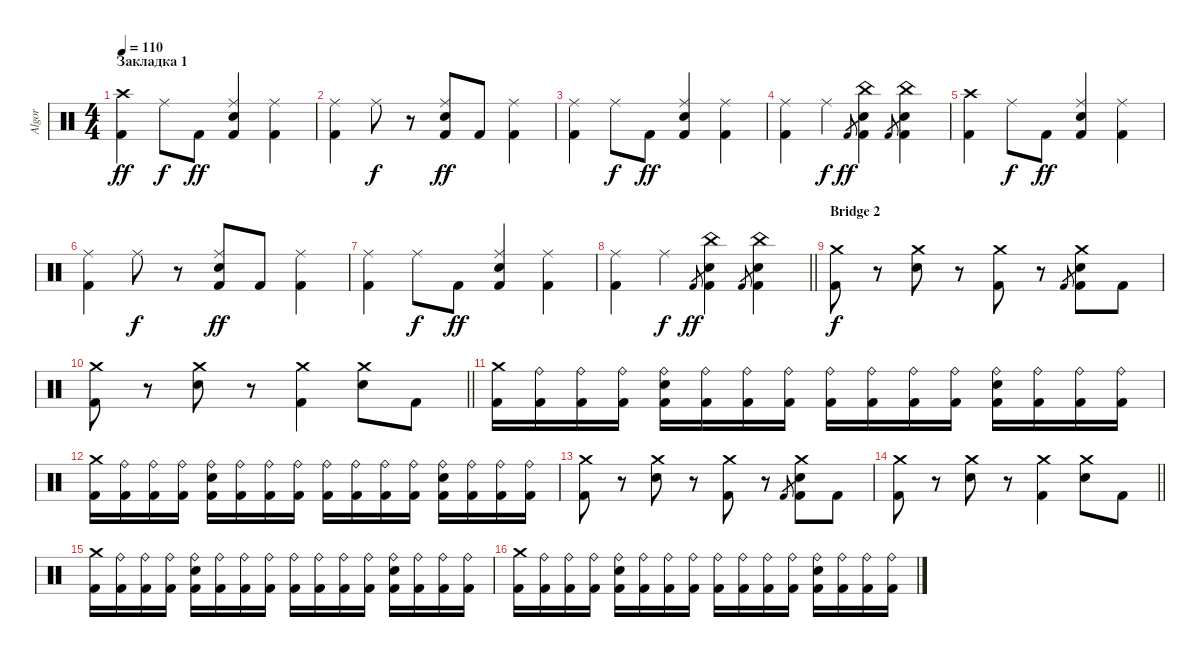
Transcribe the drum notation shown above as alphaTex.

\track ("Algor" "Algor") {instrument percussion}
\staff {score}
\articulation defaults
\ts (4 4)
\section ("" "Закладка 1")
\tempo 110
\clef neutral
\ks c
("Crash high (hit)" "Kick (hit) 2").4{dy ff} "Ride (middle)".8{dy f} "Kick (hit) 2".8{dy ff} ("Ride (middle)" "Snare (hit) 2" "Kick (hit) 2").4 ("Ride (middle)" "Kick (hit) 2").4 |
("Ride (middle)" "Kick (hit) 2").4 "Ride (middle)".8{dy f} r.8 ("Ride (middle)" "Snare (hit) 2" "Kick (hit) 2").8{dy ff} "Kick (hit) 2".8 ("Ride (middle)" "Kick (hit) 2").4 |
("Ride (middle)" "Kick (hit) 2").4 "Ride (middle)".8{dy f} "Kick (hit) 2".8{dy ff} ("Ride (middle)" "Snare (hit) 2" "Kick (hit) 2").4 ("Ride (middle)" "Kick (hit) 2").4 |
("Ride (middle)" "Kick (hit) 2").4 "Ride (middle)".4{dy f} "Kick (hit) 2".8{gr dy ff} ("China (hit)" "Snare (hit) 2" "Kick (hit) 2").4 "Kick (hit) 2".8{gr} ("China (hit)" "Snare (hit) 2" "Kick (hit) 2").4 |
("Crash high (hit)" "Kick (hit) 2").4 "Ride (middle)".8{dy f} "Kick (hit) 2".8{dy ff} ("Ride (middle)" "Snare (hit) 2" "Kick (hit) 2").4 ("Ride (middle)" "Kick (hit) 2").4 |
("Ride (middle)" "Kick (hit) 2").4 "Ride (middle)".8{dy f} r.8 ("Ride (middle)" "Snare (hit) 2" "Kick (hit) 2").8{dy ff} "Kick (hit) 2".8 ("Ride (middle)" "Kick (hit) 2").4 |
("Ride (middle)" "Kick (hit) 2").4 "Ride (middle)".8{dy f} "Kick (hit) 2".8{dy ff} ("Ride (middle)" "Snare (hit) 2" "Kick (hit) 2").4 ("Ride (middle)" "Kick (hit) 2").4 |
\barLineRight lightlight
("Ride (middle)" "Kick (hit) 2").4 "Ride (middle)".4{dy f} "Kick (hit) 2".8{gr dy ff} ("China (hit)" "Snare (hit) 2" "Kick (hit) 2").4 "Kick (hit) 2".8{gr} ("China (hit)" "Snare (hit) 2" "Kick (hit) 2").4 |
\section ("" "Bridge 2")
("Crash medium (hit)" "Kick (hit) 2").8{dy f} r.8 ("Crash medium (hit)" "Snare (hit) 2").8 r.8 ("Crash medium (hit)" "Kick (hit) 2").8 r.8 "Kick (hit) 2".8{gr} ("Crash medium (hit)" "Snare (hit) 2" "Kick (hit) 2").8 "Kick (hit) 2".8 |
\barLineRight lightlight
("Crash medium (hit)" "Kick (hit) 2").8 r.8 ("Crash medium (hit)" "Snare (hit) 2").8 r.8 ("Crash medium (hit)" "Kick (hit) 2").4 ("Crash medium (hit)" "Snare (hit) 2").8 "Kick (hit) 2".8 |
("Crash medium (hit)" "Kick (hit) 2").16 ("Ride (bell)" "Kick (hit) 2").16 ("Ride (bell)" "Kick (hit) 2").16 ("Ride (bell)" "Kick (hit) 2").16 ("Ride (bell)" "Snare (hit) 2" "Kick (hit) 2").16 ("Ride (bell)" "Kick (hit) 2").16 ("Ride (bell)" "Kick (hit) 2").16 ("Ride (bell)" "Kick (hit) 2").16 ("Ride (bell)" "Kick (hit) 2").16 ("Ride (bell)" "Kick (hit) 2").16 ("Ride (bell)" "Kick (hit) 2").16 ("Ride (bell)" "Kick (hit) 2").16 ("Ride (bell)" "Snare (hit) 2" "Kick (hit) 2").16 ("Ride (bell)" "Kick (hit) 2").16 ("Ride (bell)" "Kick (hit) 2").16 ("Ride (bell)" "Kick (hit) 2").16 |
("Crash medium (hit)" "Kick (hit) 2").16 ("Ride (bell)" "Kick (hit) 2").16 ("Ride (bell)" "Kick (hit) 2").16 ("Ride (bell)" "Kick (hit) 2").16 ("Ride (bell)" "Snare (hit) 2" "Kick (hit) 2").16 ("Ride (bell)" "Kick (hit) 2").16 ("Ride (bell)" "Kick (hit) 2").16 ("Ride (bell)" "Kick (hit) 2").16 ("Ride (bell)" "Kick (hit) 2").16 ("Ride (bell)" "Kick (hit) 2").16 ("Ride (bell)" "Kick (hit) 2").16 ("Ride (bell)" "Kick (hit) 2").16 ("Ride (bell)" "Snare (hit) 2" "Kick (hit) 2").16 ("Ride (bell)" "Kick (hit) 2").16 ("Ride (bell)" "Kick (hit) 2").16 ("Ride (bell)" "Kick (hit) 2").16 |
("Crash medium (hit)" "Kick (hit) 2").8 r.8 ("Crash medium (hit)" "Snare (hit) 2").8 r.8 ("Crash medium (hit)" "Kick (hit) 2").8 r.8 "Kick (hit) 2".8{gr} ("Crash medium (hit)" "Snare (hit) 2" "Kick (hit) 2").8 "Kick (hit) 2".8 |
\barLineRight lightlight
("Crash medium (hit)" "Kick (hit) 2").8 r.8 ("Crash medium (hit)" "Snare (hit) 2").8 r.8 ("Crash medium (hit)" "Kick (hit) 2").4 ("Crash medium (hit)" "Snare (hit) 2").8 "Kick (hit) 2".8 |
("Crash medium (hit)" "Kick (hit) 2").16 ("Ride (bell)" "Kick (hit) 2").16 ("Ride (bell)" "Kick (hit) 2").16 ("Ride (bell)" "Kick (hit) 2").16 ("Ride (bell)" "Snare (hit) 2" "Kick (hit) 2").16 ("Ride (bell)" "Kick (hit) 2").16 ("Ride (bell)" "Kick (hit) 2").16 ("Ride (bell)" "Kick (hit) 2").16 ("Ride (bell)" "Kick (hit) 2").16 ("Ride (bell)" "Kick (hit) 2").16 ("Ride (bell)" "Kick (hit) 2").16 ("Ride (bell)" "Kick (hit) 2").16 ("Ride (bell)" "Snare (hit) 2" "Kick (hit) 2").16 ("Ride (bell)" "Kick (hit) 2").16 ("Ride (bell)" "Kick (hit) 2").16 ("Ride (bell)" "Kick (hit) 2").16 |
("Crash medium (hit)" "Kick (hit) 2").16 ("Ride (bell)" "Kick (hit) 2").16 ("Ride (bell)" "Kick (hit) 2").16 ("Ride (bell)" "Kick (hit) 2").16 ("Ride (bell)" "Snare (hit) 2" "Kick (hit) 2").16 ("Ride (bell)" "Kick (hit) 2").16 ("Ride (bell)" "Kick (hit) 2").16 ("Ride (bell)" "Kick (hit) 2").16 ("Ride (bell)" "Kick (hit) 2").16 ("Ride (bell)" "Kick (hit) 2").16 ("Ride (bell)" "Kick (hit) 2").16 ("Ride (bell)" "Kick (hit) 2").16 ("Ride (bell)" "Snare (hit) 2" "Kick (hit) 2").16 ("Ride (bell)" "Kick (hit) 2").16 ("Ride (bell)" "Kick (hit) 2").16 ("Ride (bell)" "Kick (hit) 2").16
